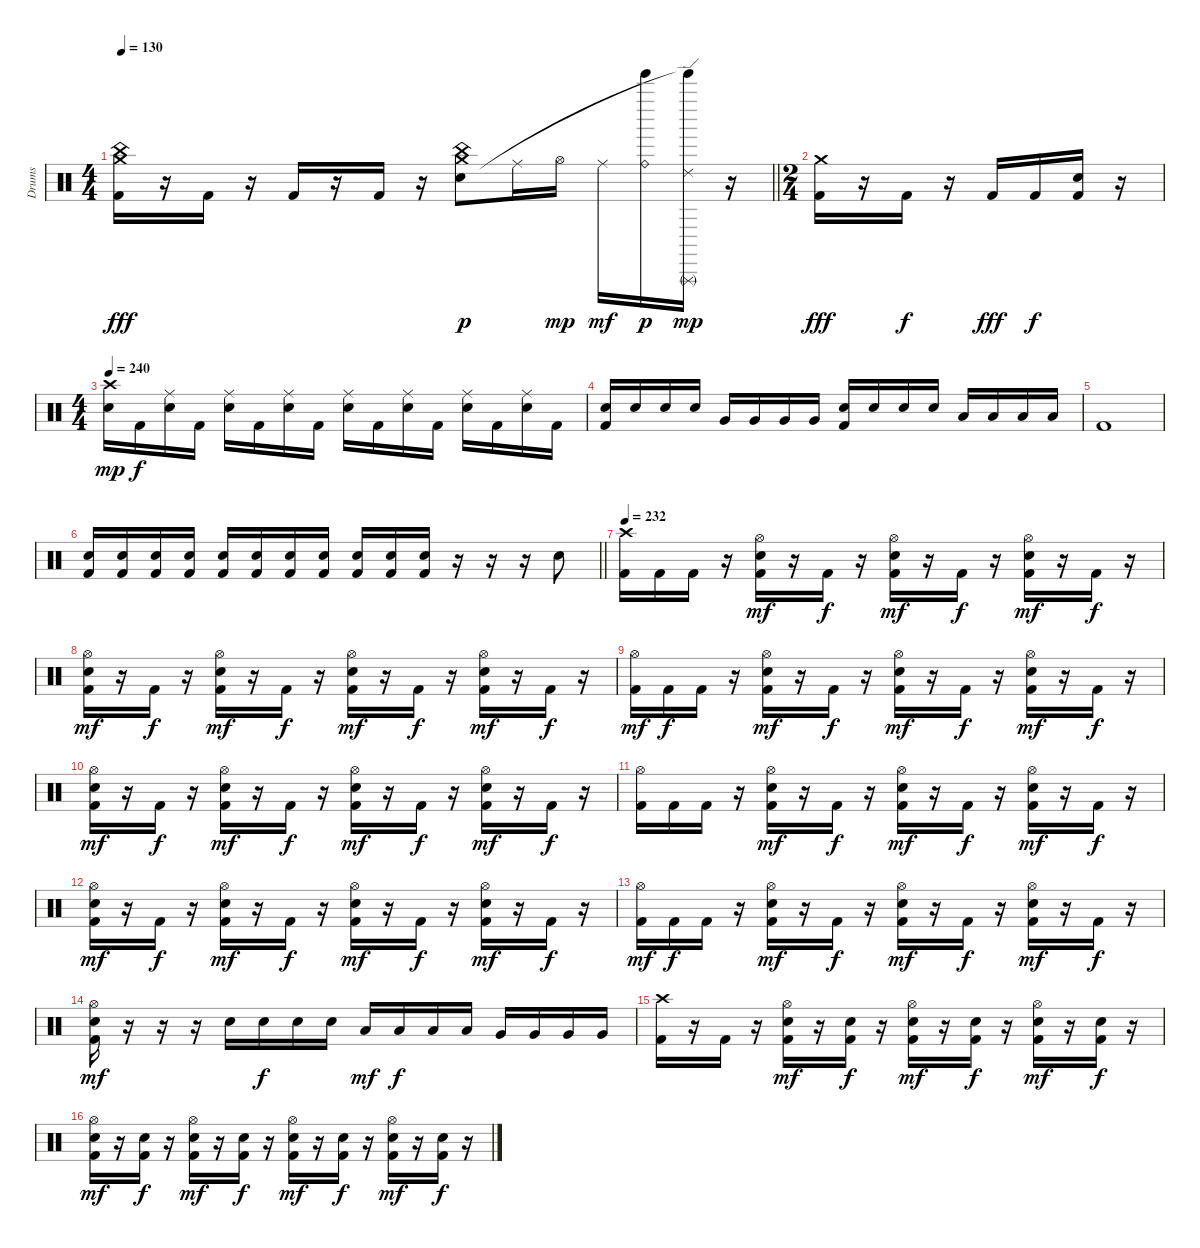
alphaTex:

\track ("Drums" "Drums") {instrument percussion}
\staff {score}
\articulation defaults
\ts (4 4)
\tempo 130
\clef neutral
\barLineRight lightlight
\ks c
("China (hit)" "Crash medium (hit)" "Kick (hit) 2").16{dy fff} r.16 "Kick (hit) 2".16 r.16 "Kick (hit) 2".16 r.16 "Kick (hit) 2".16 r.16 ("China (hit)" "Crash medium (hit)" "Snare (hit) 2").8{dy p} "Ride (middle)".16 "Hi-Hat (open)".16{dy mp} "Ride (middle)".16{dy mf} ("Ride (bell)" "Tinkle Bell (hit)").16{dy p} ("Ride (edge) 2" "Triangle (rnute)" "Tinkle Bell (hit)"{t}).16{dy mp} r.16 |
\ts (2 4)
("Crash medium (hit)" "Kick (hit) 2").16{dy fff} r.16 "Kick (hit) 2".16{dy f} r.16 "Kick (hit) 2".16{dy fff} "Kick (hit) 2".16{dy f} ("Snare (hit) 2" "Kick (hit) 2").16 r.16 |
\ts (4 4)
\tempo 240
("Crash high (hit)" "Snare (hit) 2").16{dy mp} "Kick (hit) 2".16{dy f} ("Ride (middle)" "Snare (hit) 2").16 "Kick (hit) 2".16 ("Ride (middle)" "Snare (hit) 2").16 "Kick (hit) 2".16 ("Ride (middle)" "Snare (hit) 2").16 "Kick (hit) 2".16 ("Ride (middle)" "Snare (hit) 2").16 "Kick (hit) 2".16 ("Ride (middle)" "Snare (hit) 2").16 "Kick (hit) 2".16 ("Ride (middle)" "Snare (hit) 2").16 "Kick (hit) 2".16 ("Ride (middle)" "Snare (hit) 2").16 "Kick (hit) 2".16 |
("Snare (hit) 2" "Kick (hit) 2").16 "Snare (hit) 2".16 "Snare (hit) 2".16 "Snare (hit) 2".16 "Very Low Tom (hit)".16 "Very Low Tom (hit)".16 "Very Low Tom (hit)".16 "Very Low Tom (hit)".16 ("Snare (hit) 2" "Kick (hit) 2").16 "Snare (hit) 2".16 "Snare (hit) 2".16 "Snare (hit) 2".16 "Low Tom (hit)".16 "Low Tom (hit)".16 "Low Tom (hit)".16 "Low Tom (hit)".16 |
"Kick (hit) 2".1 |
\barLineRight lightlight
("Snare (hit) 2" "Kick (hit) 2").16 ("Snare (hit) 2" "Kick (hit) 2").16 ("Snare (hit) 2" "Kick (hit) 2").16 ("Snare (hit) 2" "Kick (hit) 2").16 ("Snare (hit) 2" "Kick (hit) 2").16 ("Snare (hit) 2" "Kick (hit) 2").16 ("Snare (hit) 2" "Kick (hit) 2").16 ("Snare (hit) 2" "Kick (hit) 2").16 ("Snare (hit) 2" "Kick (hit) 2").16 ("Snare (hit) 2" "Kick (hit) 2").16 ("Snare (hit) 2" "Kick (hit) 2").16 r.16 r.16 r.16 "Snare (hit) 2".8 |
\tempo 232
("Crash high (hit)" "Kick (hit) 2").16 "Kick (hit) 2".16 "Kick (hit) 2".16 r.16 ("Hi-Hat (open)" "Snare (hit) 2" "Kick (hit) 2").16{dy mf} r.16 "Kick (hit) 2".16{dy f} r.16 ("Hi-Hat (open)" "Snare (hit) 2" "Kick (hit) 2").16{dy mf} r.16 "Kick (hit) 2".16{dy f} r.16 ("Hi-Hat (open)" "Snare (hit) 2" "Kick (hit) 2").16{dy mf} r.16 "Kick (hit) 2".16{dy f} r.16 |
("Hi-Hat (open)" "Snare (hit) 2" "Kick (hit) 2").16{dy mf} r.16 "Kick (hit) 2".16{dy f} r.16 ("Hi-Hat (open)" "Snare (hit) 2" "Kick (hit) 2").16{dy mf} r.16 "Kick (hit) 2".16{dy f} r.16 ("Hi-Hat (open)" "Snare (hit) 2" "Kick (hit) 2").16{dy mf} r.16 "Kick (hit) 2".16{dy f} r.16 ("Hi-Hat (open)" "Snare (hit) 2" "Kick (hit) 2").16{dy mf} r.16 "Kick (hit) 2".16{dy f} r.16 |
("Hi-Hat (open)" "Kick (hit) 2").16{dy mf} "Kick (hit) 2".16{dy f} "Kick (hit) 2".16 r.16 ("Hi-Hat (open)" "Snare (hit) 2" "Kick (hit) 2").16{dy mf} r.16 "Kick (hit) 2".16{dy f} r.16 ("Hi-Hat (open)" "Snare (hit) 2" "Kick (hit) 2").16{dy mf} r.16 "Kick (hit) 2".16{dy f} r.16 ("Hi-Hat (open)" "Snare (hit) 2" "Kick (hit) 2").16{dy mf} r.16 "Kick (hit) 2".16{dy f} r.16 |
("Hi-Hat (open)" "Snare (hit) 2" "Kick (hit) 2").16{dy mf} r.16 "Kick (hit) 2".16{dy f} r.16 ("Hi-Hat (open)" "Snare (hit) 2" "Kick (hit) 2").16{dy mf} r.16 "Kick (hit) 2".16{dy f} r.16 ("Hi-Hat (open)" "Snare (hit) 2" "Kick (hit) 2").16{dy mf} r.16 "Kick (hit) 2".16{dy f} r.16 ("Hi-Hat (open)" "Snare (hit) 2" "Kick (hit) 2").16{dy mf} r.16 "Kick (hit) 2".16{dy f} r.16 |
("Hi-Hat (open)" "Kick (hit) 2").16 "Kick (hit) 2".16 "Kick (hit) 2".16 r.16 ("Hi-Hat (open)" "Snare (hit) 2" "Kick (hit) 2").16{dy mf} r.16 "Kick (hit) 2".16{dy f} r.16 ("Hi-Hat (open)" "Snare (hit) 2" "Kick (hit) 2").16{dy mf} r.16 "Kick (hit) 2".16{dy f} r.16 ("Hi-Hat (open)" "Snare (hit) 2" "Kick (hit) 2").16{dy mf} r.16 "Kick (hit) 2".16{dy f} r.16 |
("Hi-Hat (open)" "Snare (hit) 2" "Kick (hit) 2").16{dy mf} r.16 "Kick (hit) 2".16{dy f} r.16 ("Hi-Hat (open)" "Snare (hit) 2" "Kick (hit) 2").16{dy mf} r.16 "Kick (hit) 2".16{dy f} r.16 ("Hi-Hat (open)" "Snare (hit) 2" "Kick (hit) 2").16{dy mf} r.16 "Kick (hit) 2".16{dy f} r.16 ("Hi-Hat (open)" "Snare (hit) 2" "Kick (hit) 2").16{dy mf} r.16 "Kick (hit) 2".16{dy f} r.16 |
("Hi-Hat (open)" "Kick (hit) 2").16{dy mf} "Kick (hit) 2".16{dy f} "Kick (hit) 2".16 r.16 ("Hi-Hat (open)" "Snare (hit) 2" "Kick (hit) 2").16{dy mf} r.16 "Kick (hit) 2".16{dy f} r.16 ("Hi-Hat (open)" "Snare (hit) 2" "Kick (hit) 2").16{dy mf} r.16 "Kick (hit) 2".16{dy f} r.16 ("Hi-Hat (open)" "Snare (hit) 2" "Kick (hit) 2").16{dy mf} r.16 "Kick (hit) 2".16{dy f} r.16 |
("Hi-Hat (open)" "Snare (hit) 2" "Kick (hit) 2").16{dy mf} r.16 r.16 r.16 "Snare (hit) 2".16 "Snare (hit) 2".16{dy f} "Snare (hit) 2".16 "Snare (hit) 2".16 "Low Tom (hit)".16{dy mf} "Low Tom (hit)".16{dy f} "Low Tom (hit)".16 "Low Tom (hit)".16 "Very Low Tom (hit)".16 "Very Low Tom (hit)".16 "Very Low Tom (hit)".16 "Very Low Tom (hit)".16 |
("Crash high (hit)" "Kick (hit) 2").16 r.16 "Kick (hit) 2".16 r.16 ("Hi-Hat (open)" "Snare (hit) 2" "Kick (hit) 2").16{dy mf} r.16 ("Snare (hit) 2" "Kick (hit) 2").16{dy f} r.16 ("Hi-Hat (open)" "Snare (hit) 2" "Kick (hit) 2").16{dy mf} r.16 ("Snare (hit) 2" "Kick (hit) 2").16{dy f} r.16 ("Hi-Hat (open)" "Snare (hit) 2" "Kick (hit) 2").16{dy mf} r.16 ("Snare (hit) 2" "Kick (hit) 2").16{dy f} r.16 |
("Hi-Hat (open)" "Snare (hit) 2" "Kick (hit) 2").16{dy mf} r.16 ("Snare (hit) 2" "Kick (hit) 2").16{dy f} r.16 ("Hi-Hat (open)" "Snare (hit) 2" "Kick (hit) 2").16{dy mf} r.16 ("Snare (hit) 2" "Kick (hit) 2").16{dy f} r.16 ("Hi-Hat (open)" "Snare (hit) 2" "Kick (hit) 2").16{dy mf} r.16 ("Snare (hit) 2" "Kick (hit) 2").16{dy f} r.16 ("Hi-Hat (open)" "Snare (hit) 2" "Kick (hit) 2").16{dy mf} r.16 ("Snare (hit) 2" "Kick (hit) 2").16{dy f} r.16
